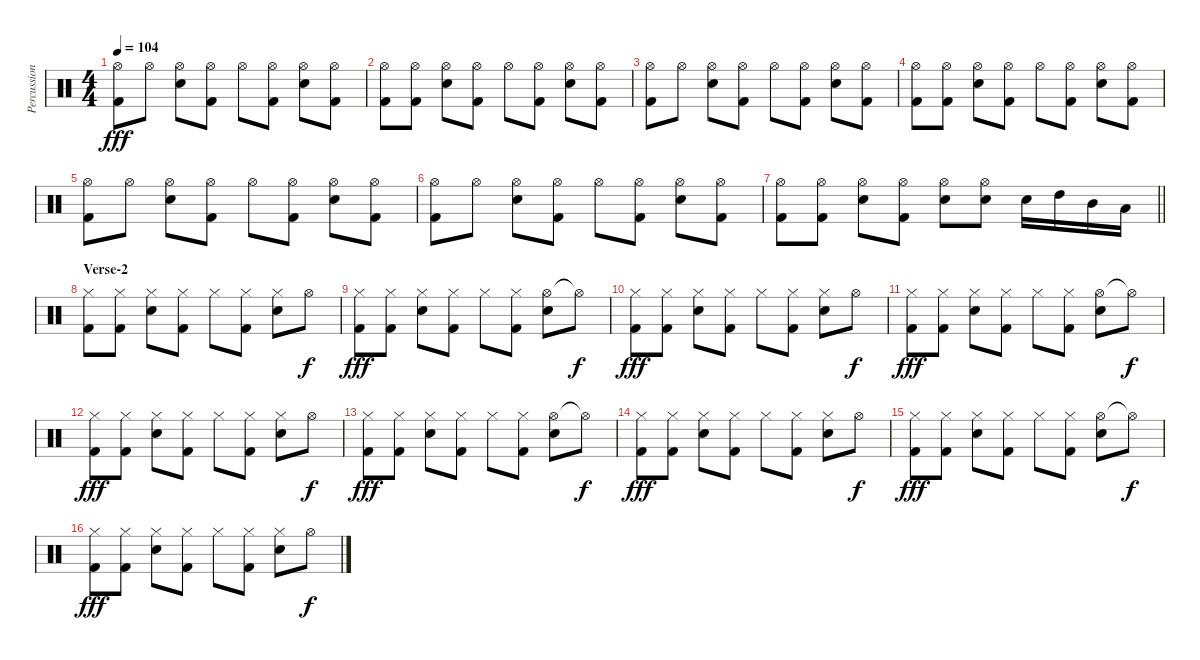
\track ("Percussion" "Percussion") {instrument percussion}
\staff {score}
\articulation defaults
\ts (4 4)
\tempo 104
\clef neutral
\ks c
("Hi-Hat (open)" "Kick (hit) 2").8{dy fff} "Hi-Hat (open)".8 ("Hi-Hat (open)" "Electric Snare (hit)").8 ("Hi-Hat (open)" "Kick (hit) 2").8 "Hi-Hat (open)".8 ("Hi-Hat (open)" "Kick (hit) 2").8 ("Hi-Hat (open)" "Electric Snare (hit)").8 ("Hi-Hat (open)" "Kick (hit) 2").8 |
("Hi-Hat (open)" "Kick (hit) 2").8 ("Hi-Hat (open)" "Kick (hit) 2").8 ("Hi-Hat (open)" "Electric Snare (hit)").8 ("Hi-Hat (open)" "Kick (hit) 2").8 "Hi-Hat (open)".8 ("Hi-Hat (open)" "Kick (hit) 2").8 ("Hi-Hat (open)" "Electric Snare (hit)").8 ("Hi-Hat (open)" "Kick (hit) 2").8 |
("Hi-Hat (open)" "Kick (hit) 2").8 "Hi-Hat (open)".8 ("Hi-Hat (open)" "Electric Snare (hit)").8 ("Hi-Hat (open)" "Kick (hit) 2").8 "Hi-Hat (open)".8 ("Hi-Hat (open)" "Kick (hit) 2").8 ("Hi-Hat (open)" "Electric Snare (hit)").8 ("Hi-Hat (open)" "Kick (hit) 2").8 |
("Hi-Hat (open)" "Kick (hit) 2").8 ("Hi-Hat (open)" "Kick (hit) 2").8 ("Hi-Hat (open)" "Electric Snare (hit)").8 ("Hi-Hat (open)" "Kick (hit) 2").8 "Hi-Hat (open)".8 ("Hi-Hat (open)" "Kick (hit) 2").8 ("Hi-Hat (open)" "Electric Snare (hit)").8 ("Hi-Hat (open)" "Kick (hit) 2").8 |
("Hi-Hat (open)" "Kick (hit) 2").8 "Hi-Hat (open)".8 ("Hi-Hat (open)" "Electric Snare (hit)").8 ("Hi-Hat (open)" "Kick (hit) 2").8 "Hi-Hat (open)".8 ("Hi-Hat (open)" "Kick (hit) 2").8 ("Hi-Hat (open)" "Electric Snare (hit)").8 ("Hi-Hat (open)" "Kick (hit) 2").8 |
("Hi-Hat (open)" "Kick (hit) 2").8 "Hi-Hat (open)".8 ("Hi-Hat (open)" "Electric Snare (hit)").8 ("Hi-Hat (open)" "Kick (hit) 2").8 "Hi-Hat (open)".8 ("Hi-Hat (open)" "Kick (hit) 2").8 ("Hi-Hat (open)" "Electric Snare (hit)").8 ("Hi-Hat (open)" "Kick (hit) 2").8 |
\barLineRight lightlight
("Hi-Hat (open)" "Kick (hit) 2").8 ("Hi-Hat (open)" "Kick (hit) 2").8 ("Hi-Hat (open)" "Electric Snare (hit)").8 ("Hi-Hat (open)" "Kick (hit) 2").8 ("Hi-Hat (open)" "Electric Snare (hit)").8 ("Hi-Hat (open)" "Electric Snare (hit)").8 "Electric Snare (hit)".16 "High Tom (hit)".16 "Mid Tom (hit)".16 "Low Tom (hit)".16 |
\section ("" "Verse-2")
("Hi-Hat (closed)" "Kick (hit) 2").8 ("Hi-Hat (closed)" "Kick (hit) 2").8 ("Hi-Hat (closed)" "Electric Snare (hit)").8 ("Hi-Hat (closed)" "Kick (hit) 2").8 "Hi-Hat (closed)".8 ("Hi-Hat (closed)" "Kick (hit) 2").8 ("Hi-Hat (closed)" "Electric Snare (hit)").8 "Hi-Hat (open)".8{dy f} |
("Hi-Hat (closed)" "Kick (hit) 2").8{dy fff} ("Hi-Hat (closed)" "Kick (hit) 2").8 ("Hi-Hat (closed)" "Electric Snare (hit)").8 ("Hi-Hat (closed)" "Kick (hit) 2").8 "Hi-Hat (closed)".8 ("Hi-Hat (closed)" "Kick (hit) 2").8 ("Hi-Hat (open)" "Electric Snare (hit)").8 "Hi-Hat (open)"{t}.8{dy f} |
("Hi-Hat (closed)" "Kick (hit) 2").8{dy fff} ("Hi-Hat (closed)" "Kick (hit) 2").8 ("Hi-Hat (closed)" "Electric Snare (hit)").8 ("Hi-Hat (closed)" "Kick (hit) 2").8 "Hi-Hat (closed)".8 ("Hi-Hat (closed)" "Kick (hit) 2").8 ("Hi-Hat (closed)" "Electric Snare (hit)").8 "Hi-Hat (open)".8{dy f} |
("Hi-Hat (closed)" "Kick (hit) 2").8{dy fff} ("Hi-Hat (closed)" "Kick (hit) 2").8 ("Hi-Hat (closed)" "Electric Snare (hit)").8 ("Hi-Hat (closed)" "Kick (hit) 2").8 "Hi-Hat (closed)".8 ("Hi-Hat (closed)" "Kick (hit) 2").8 ("Hi-Hat (open)" "Electric Snare (hit)").8 "Hi-Hat (open)"{t}.8{dy f} |
("Hi-Hat (closed)" "Kick (hit) 2").8{dy fff} ("Hi-Hat (closed)" "Kick (hit) 2").8 ("Hi-Hat (closed)" "Electric Snare (hit)").8 ("Hi-Hat (closed)" "Kick (hit) 2").8 "Hi-Hat (closed)".8 ("Hi-Hat (closed)" "Kick (hit) 2").8 ("Hi-Hat (closed)" "Electric Snare (hit)").8 "Hi-Hat (open)".8{dy f} |
("Hi-Hat (closed)" "Kick (hit) 2").8{dy fff} ("Hi-Hat (closed)" "Kick (hit) 2").8 ("Hi-Hat (closed)" "Electric Snare (hit)").8 ("Hi-Hat (closed)" "Kick (hit) 2").8 "Hi-Hat (closed)".8 ("Hi-Hat (closed)" "Kick (hit) 2").8 ("Hi-Hat (open)" "Electric Snare (hit)").8 "Hi-Hat (open)"{t}.8{dy f} |
("Hi-Hat (closed)" "Kick (hit) 2").8{dy fff} ("Hi-Hat (closed)" "Kick (hit) 2").8 ("Hi-Hat (closed)" "Electric Snare (hit)").8 ("Hi-Hat (closed)" "Kick (hit) 2").8 "Hi-Hat (closed)".8 ("Hi-Hat (closed)" "Kick (hit) 2").8 ("Hi-Hat (closed)" "Electric Snare (hit)").8 "Hi-Hat (open)".8{dy f} |
("Hi-Hat (closed)" "Kick (hit) 2").8{dy fff} ("Hi-Hat (closed)" "Kick (hit) 2").8 ("Hi-Hat (closed)" "Electric Snare (hit)").8 ("Hi-Hat (closed)" "Kick (hit) 2").8 "Hi-Hat (closed)".8 ("Hi-Hat (closed)" "Kick (hit) 2").8 ("Hi-Hat (open)" "Electric Snare (hit)").8 "Hi-Hat (open)"{t}.8{dy f} |
("Hi-Hat (closed)" "Kick (hit) 2").8{dy fff} ("Hi-Hat (closed)" "Kick (hit) 2").8 ("Hi-Hat (closed)" "Electric Snare (hit)").8 ("Hi-Hat (closed)" "Kick (hit) 2").8 "Hi-Hat (closed)".8 ("Hi-Hat (closed)" "Kick (hit) 2").8 ("Hi-Hat (closed)" "Electric Snare (hit)").8 "Hi-Hat (open)".8{dy f}
